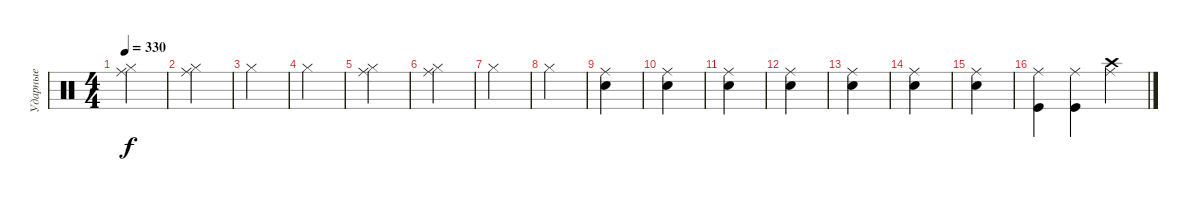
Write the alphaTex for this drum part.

\track ("Ударные" "Ударные") {instrument percussion}
\staff {score}
\articulation defaults
\ts (4 4)
\tempo 330
\clef neutral
\ks c
("Hi-Hat (closed)" "Ride (middle)").4{dy f} |
("Hi-Hat (closed)" "Ride (middle)").4 |
"Hi-Hat (closed)".4 |
"Hi-Hat (closed)".4 |
("Hi-Hat (closed)" "Ride (middle)").4 |
("Hi-Hat (closed)" "Ride (middle)").4 |
"Hi-Hat (closed)".4 |
"Hi-Hat (closed)".4 |
("Snare (hit) 2" "Ride (middle)").4 |
("Snare (hit) 2" "Ride (middle)").4 |
("Snare (hit) 2" "Ride (middle)").4 |
("Snare (hit) 2" "Ride (middle)").4 |
("Snare (hit) 2" "Ride (middle)").4 |
("Snare (hit) 2" "Ride (middle)").4 |
("Snare (hit) 2" "Ride (middle)").4 |
("Kick (hit)" "Ride (middle)").4 ("Kick (hit)" "Ride (middle)").4 ("Ride (middle)" "Crash high (hit)").4
